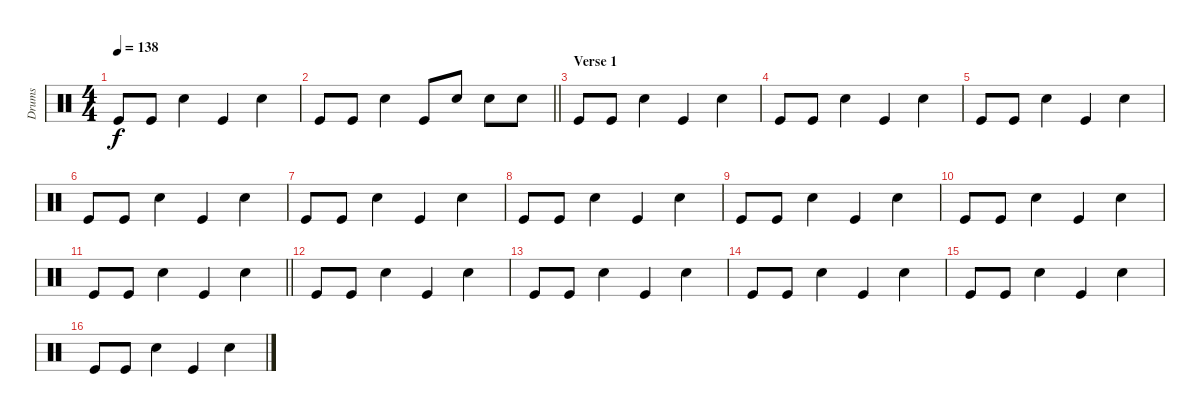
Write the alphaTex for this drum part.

\track ("Drums" "Drums") {instrument percussion}
\staff {score}
\articulation defaults
\ts (4 4)
\tempo 138
\clef neutral
\ks c "Kick (hit)".8{dy f} "Kick (hit)".8 "Snare (hit) 2".4 "Kick (hit)".4 "Snare (hit) 2".4
|
\barLineRight lightlight "Kick (hit)".8 "Kick (hit)".8 "Snare (hit) 2".4 "Kick (hit)".8 "Snare (hit) 2".8 "Snare (hit) 2".8 "Snare (hit) 2".8
|
\section ("" "Verse 1")
"Kick (hit)".8 "Kick (hit)".8 "Snare (hit) 2".4 "Kick (hit)".4 "Snare (hit) 2".4 |
"Kick (hit)".8 "Kick (hit)".8 "Snare (hit) 2".4 "Kick (hit)".4 "Snare (hit) 2".4 |
"Kick (hit)".8 "Kick (hit)".8 "Snare (hit) 2".4 "Kick (hit)".4 "Snare (hit) 2".4 |
"Kick (hit)".8 "Kick (hit)".8 "Snare (hit) 2".4 "Kick (hit)".4 "Snare (hit) 2".4 |
"Kick (hit)".8 "Kick (hit)".8 "Snare (hit) 2".4 "Kick (hit)".4 "Snare (hit) 2".4 |
"Kick (hit)".8 "Kick (hit)".8 "Snare (hit) 2".4 "Kick (hit)".4 "Snare (hit) 2".4 |
"Kick (hit)".8 "Kick (hit)".8 "Snare (hit) 2".4 "Kick (hit)".4 "Snare (hit) 2".4 |
"Kick (hit)".8 "Kick (hit)".8 "Snare (hit) 2".4 "Kick (hit)".4 "Snare (hit) 2".4 |
\barLineRight lightlight "Kick (hit)".8 "Kick (hit)".8 "Snare (hit) 2".4 "Kick (hit)".4 "Snare (hit) 2".4
|
"Kick (hit)".8 "Kick (hit)".8 "Snare (hit) 2".4 "Kick (hit)".4 "Snare (hit) 2".4 |
"Kick (hit)".8 "Kick (hit)".8 "Snare (hit) 2".4 "Kick (hit)".4 "Snare (hit) 2".4 |
"Kick (hit)".8 "Kick (hit)".8 "Snare (hit) 2".4 "Kick (hit)".4 "Snare (hit) 2".4 |
"Kick (hit)".8 "Kick (hit)".8 "Snare (hit) 2".4 "Kick (hit)".4 "Snare (hit) 2".4 |
"Kick (hit)".8 "Kick (hit)".8 "Snare (hit) 2".4 "Kick (hit)".4 "Snare (hit) 2".4
